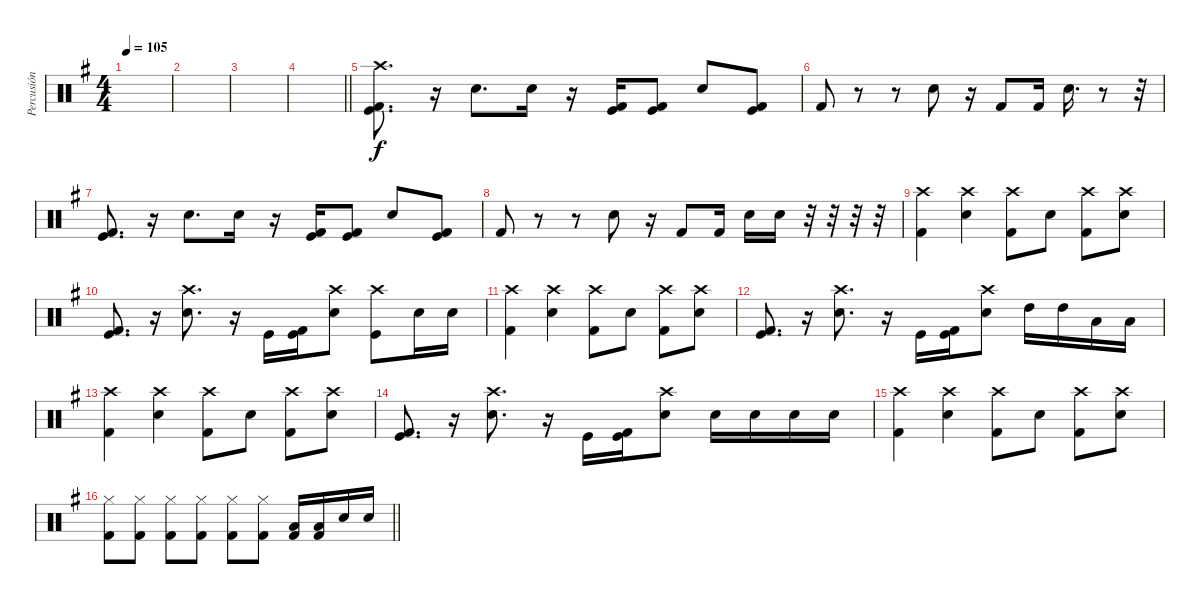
\track ("Percusión" "Percusión") {instrument percussion}
\staff {score}
\articulation defaults
\ts (4 4)
\tempo 105
\clef neutral
\ks g
|
|
|
\barLineRight lightlight
|
("Crash high (hit)" "Kick (hit)" "Kick (hit) 2").8{d} r.16 "Electric Snare (hit)".8{d} "Electric Snare (hit)".16 r.16 ("Kick (hit)" "Kick (hit) 2").16 ("Kick (hit)" "Kick (hit) 2").8 "Electric Snare (hit)".8 ("Kick (hit)" "Kick (hit) 2").8 |
"Kick (hit) 2".8 r.8 r.8 "Electric Snare (hit)".8 r.16 "Kick (hit) 2".8 "Kick (hit) 2".16 "Electric Snare (hit)".16{d} r.8 r.32 |
("Kick (hit)" "Kick (hit) 2").8{d} r.16 "Electric Snare (hit)".8{d} "Electric Snare (hit)".16 r.16 ("Kick (hit)" "Kick (hit) 2").16 ("Kick (hit)" "Kick (hit) 2").8 "Electric Snare (hit)".8 ("Kick (hit)" "Kick (hit) 2").8 |
"Kick (hit) 2".8 r.8 r.8 "Electric Snare (hit)".8 r.16 "Kick (hit) 2".8 "Kick (hit) 2".16 "Electric Snare (hit)".16 "Electric Snare (hit)".16 r.32 r.32 r.32 r.32 |
("Crash high (hit)" "Kick (hit) 2").4 ("Crash high (hit)" "Electric Snare (hit)").4 ("Crash high (hit)" "Kick (hit) 2").8 "Electric Snare (hit)".8 ("Crash high (hit)" "Kick (hit) 2").8 ("Crash high (hit)" "Electric Snare (hit)").8 |
("Kick (hit)" "Kick (hit) 2").8{d} r.16 ("Crash high (hit)" "Electric Snare (hit)").8{d} r.16 "Kick (hit)".16 ("Kick (hit)" "Kick (hit) 2").16 ("Crash high (hit)" "Electric Snare (hit)").8 ("Crash high (hit)" "Kick (hit)").8 "Electric Snare (hit)".16 "Electric Snare (hit)".16 |
("Crash high (hit)" "Kick (hit) 2").4 ("Crash high (hit)" "Electric Snare (hit)").4 ("Crash high (hit)" "Kick (hit) 2").8 "Electric Snare (hit)".8 ("Crash high (hit)" "Kick (hit) 2").8 ("Crash high (hit)" "Electric Snare (hit)").8 |
("Kick (hit)" "Kick (hit) 2").8{d} r.16 ("Crash high (hit)" "Electric Snare (hit)").8{d} r.16 "Kick (hit)".16 ("Kick (hit)" "Kick (hit) 2").16 ("Crash high (hit)" "Electric Snare (hit)").8 "High Tom (hit)".16 "High Tom (hit)".16 "Low Tom (hit)".16 "Low Tom (hit)".16 |
("Crash high (hit)" "Kick (hit) 2").4 ("Crash high (hit)" "Electric Snare (hit)").4 ("Crash high (hit)" "Kick (hit) 2").8 "Electric Snare (hit)".8 ("Crash high (hit)" "Kick (hit) 2").8 ("Crash high (hit)" "Electric Snare (hit)").8 |
("Kick (hit)" "Kick (hit) 2").8{d} r.16 ("Crash high (hit)" "Electric Snare (hit)").8{d} r.16 "Kick (hit)".16 ("Kick (hit)" "Kick (hit) 2").16 ("Crash high (hit)" "Electric Snare (hit)").8 "Electric Snare (hit)".16 "Electric Snare (hit)".16 "Electric Snare (hit)".16 "Electric Snare (hit)".16 |
("Crash high (hit)" "Kick (hit) 2").4 ("Crash high (hit)" "Electric Snare (hit)").4 ("Crash high (hit)" "Kick (hit) 2").8 "Electric Snare (hit)".8 ("Crash high (hit)" "Kick (hit) 2").8 ("Crash high (hit)" "Electric Snare (hit)").8 |
\barLineRight lightlight
("Hi-Hat (closed)" "Kick (hit) 2").8 ("Hi-Hat (closed)" "Kick (hit) 2").8 ("Hi-Hat (closed)" "Kick (hit) 2").8 ("Hi-Hat (closed)" "Kick (hit) 2").8 ("Hi-Hat (closed)" "Kick (hit) 2").8 ("Hi-Hat (closed)" "Kick (hit) 2").8 ("Low Tom (hit)" "Kick (hit) 2").16 ("Low Tom (hit)" "Kick (hit) 2").16 "Electric Snare (hit)".16 "Electric Snare (hit)".16
